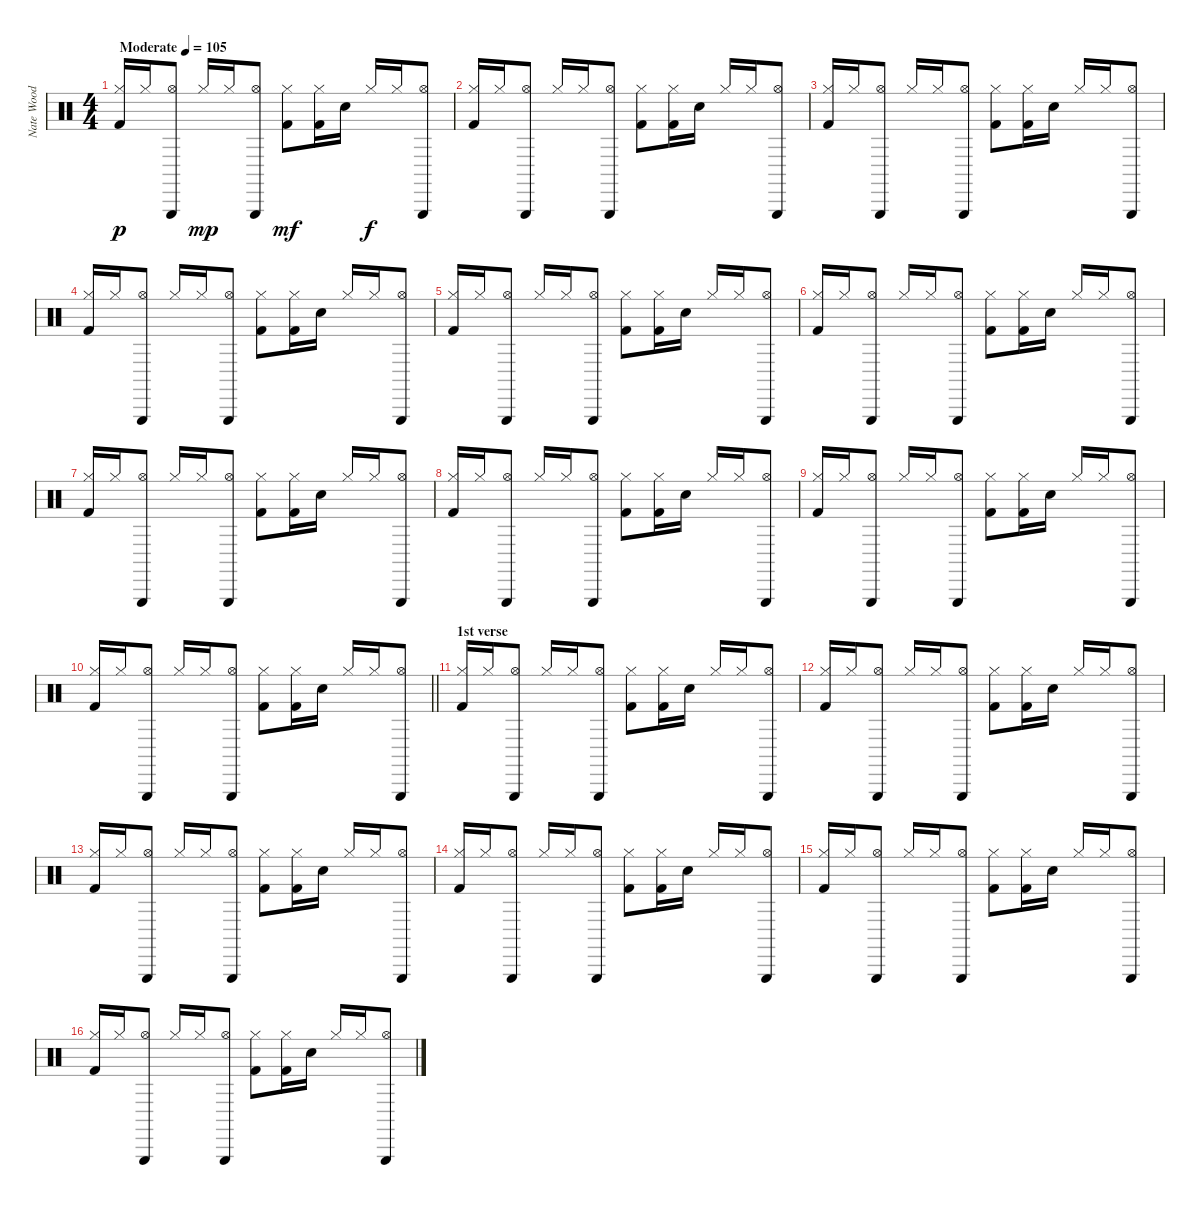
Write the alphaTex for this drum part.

\track ("Nate Wood" "Nate Wood") {instrument percussion}
\staff {score}
\articulation defaults
\ts (4 4)
\tempo (105 "Moderate")
\clef neutral
\ks c
("Hi-Hat (closed)" "Kick (hit) 2").16{dy p} "Hi-Hat (closed)".16 ("Triangle (hit)" "Hi-Hat (open)").8 "Hi-Hat (closed)".16{dy mp} "Hi-Hat (closed)".16 ("Triangle (hit)" "Hi-Hat (open)").8 ("Hi-Hat (closed)" "Kick (hit) 2").8{dy mf} ("Hi-Hat (closed)" "Kick (hit) 2").16 "Electric Snare (hit)".16 "Hi-Hat (closed)".16{dy f} "Hi-Hat (closed)".16 ("Triangle (hit)" "Hi-Hat (open)").8 |
("Hi-Hat (closed)" "Kick (hit) 2").16 "Hi-Hat (closed)".16 ("Triangle (hit)" "Hi-Hat (open)").8 "Hi-Hat (closed)".16 "Hi-Hat (closed)".16 ("Triangle (hit)" "Hi-Hat (open)").8 ("Hi-Hat (closed)" "Kick (hit) 2").8 ("Hi-Hat (closed)" "Kick (hit) 2").16 "Electric Snare (hit)".16 "Hi-Hat (closed)".16 "Hi-Hat (closed)".16 ("Triangle (hit)" "Hi-Hat (open)").8 |
("Hi-Hat (closed)" "Kick (hit) 2").16 "Hi-Hat (closed)".16 ("Triangle (hit)" "Hi-Hat (open)").8 "Hi-Hat (closed)".16 "Hi-Hat (closed)".16 ("Triangle (hit)" "Hi-Hat (open)").8 ("Hi-Hat (closed)" "Kick (hit) 2").8 ("Hi-Hat (closed)" "Kick (hit) 2").16 "Electric Snare (hit)".16 "Hi-Hat (closed)".16 "Hi-Hat (closed)".16 ("Triangle (hit)" "Hi-Hat (open)").8 |
("Hi-Hat (closed)" "Kick (hit) 2").16 "Hi-Hat (closed)".16 ("Triangle (hit)" "Hi-Hat (open)").8 "Hi-Hat (closed)".16 "Hi-Hat (closed)".16 ("Triangle (hit)" "Hi-Hat (open)").8 ("Hi-Hat (closed)" "Kick (hit) 2").8 ("Hi-Hat (closed)" "Kick (hit) 2").16 "Electric Snare (hit)".16 "Hi-Hat (closed)".16 "Hi-Hat (closed)".16 ("Triangle (hit)" "Hi-Hat (open)").8 |
("Hi-Hat (closed)" "Kick (hit) 2").16 "Hi-Hat (closed)".16 ("Triangle (hit)" "Hi-Hat (open)").8 "Hi-Hat (closed)".16 "Hi-Hat (closed)".16 ("Triangle (hit)" "Hi-Hat (open)").8 ("Hi-Hat (closed)" "Kick (hit) 2").8 ("Hi-Hat (closed)" "Kick (hit) 2").16 "Electric Snare (hit)".16 "Hi-Hat (closed)".16 "Hi-Hat (closed)".16 ("Triangle (hit)" "Hi-Hat (open)").8 |
("Hi-Hat (closed)" "Kick (hit) 2").16 "Hi-Hat (closed)".16 ("Triangle (hit)" "Hi-Hat (open)").8 "Hi-Hat (closed)".16 "Hi-Hat (closed)".16 ("Triangle (hit)" "Hi-Hat (open)").8 ("Hi-Hat (closed)" "Kick (hit) 2").8 ("Hi-Hat (closed)" "Kick (hit) 2").16 "Electric Snare (hit)".16 "Hi-Hat (closed)".16 "Hi-Hat (closed)".16 ("Triangle (hit)" "Hi-Hat (open)").8 |
("Hi-Hat (closed)" "Kick (hit) 2").16 "Hi-Hat (closed)".16 ("Triangle (hit)" "Hi-Hat (open)").8 "Hi-Hat (closed)".16 "Hi-Hat (closed)".16 ("Triangle (hit)" "Hi-Hat (open)").8 ("Hi-Hat (closed)" "Kick (hit) 2").8 ("Hi-Hat (closed)" "Kick (hit) 2").16 "Electric Snare (hit)".16 "Hi-Hat (closed)".16 "Hi-Hat (closed)".16 ("Triangle (hit)" "Hi-Hat (open)").8 |
("Hi-Hat (closed)" "Kick (hit) 2").16 "Hi-Hat (closed)".16 ("Triangle (hit)" "Hi-Hat (open)").8 "Hi-Hat (closed)".16 "Hi-Hat (closed)".16 ("Triangle (hit)" "Hi-Hat (open)").8 ("Hi-Hat (closed)" "Kick (hit) 2").8 ("Hi-Hat (closed)" "Kick (hit) 2").16 "Electric Snare (hit)".16 "Hi-Hat (closed)".16 "Hi-Hat (closed)".16 ("Triangle (hit)" "Hi-Hat (open)").8 |
("Hi-Hat (closed)" "Kick (hit) 2").16 "Hi-Hat (closed)".16 ("Triangle (hit)" "Hi-Hat (open)").8 "Hi-Hat (closed)".16 "Hi-Hat (closed)".16 ("Triangle (hit)" "Hi-Hat (open)").8 ("Hi-Hat (closed)" "Kick (hit) 2").8 ("Hi-Hat (closed)" "Kick (hit) 2").16 "Electric Snare (hit)".16 "Hi-Hat (closed)".16 "Hi-Hat (closed)".16 ("Triangle (hit)" "Hi-Hat (open)").8 |
\barLineRight lightlight
("Hi-Hat (closed)" "Kick (hit) 2").16 "Hi-Hat (closed)".16 ("Triangle (hit)" "Hi-Hat (open)").8 "Hi-Hat (closed)".16 "Hi-Hat (closed)".16 ("Triangle (hit)" "Hi-Hat (open)").8 ("Hi-Hat (closed)" "Kick (hit) 2").8 ("Hi-Hat (closed)" "Kick (hit) 2").16 "Electric Snare (hit)".16 "Hi-Hat (closed)".16 "Hi-Hat (closed)".16 ("Triangle (hit)" "Hi-Hat (open)").8 |
\section ("" "1st verse")
("Hi-Hat (closed)" "Kick (hit) 2").16 "Hi-Hat (closed)".16 ("Triangle (hit)" "Hi-Hat (open)").8 "Hi-Hat (closed)".16 "Hi-Hat (closed)".16 ("Triangle (hit)" "Hi-Hat (open)").8 ("Hi-Hat (closed)" "Kick (hit) 2").8 ("Hi-Hat (closed)" "Kick (hit) 2").16 "Electric Snare (hit)".16 "Hi-Hat (closed)".16 "Hi-Hat (closed)".16 ("Triangle (hit)" "Hi-Hat (open)").8 |
("Hi-Hat (closed)" "Kick (hit) 2").16 "Hi-Hat (closed)".16 ("Triangle (hit)" "Hi-Hat (open)").8 "Hi-Hat (closed)".16 "Hi-Hat (closed)".16 ("Triangle (hit)" "Hi-Hat (open)").8 ("Hi-Hat (closed)" "Kick (hit) 2").8 ("Hi-Hat (closed)" "Kick (hit) 2").16 "Electric Snare (hit)".16 "Hi-Hat (closed)".16 "Hi-Hat (closed)".16 ("Triangle (hit)" "Hi-Hat (open)").8 |
("Hi-Hat (closed)" "Kick (hit) 2").16 "Hi-Hat (closed)".16 ("Triangle (hit)" "Hi-Hat (open)").8 "Hi-Hat (closed)".16 "Hi-Hat (closed)".16 ("Triangle (hit)" "Hi-Hat (open)").8 ("Hi-Hat (closed)" "Kick (hit) 2").8 ("Hi-Hat (closed)" "Kick (hit) 2").16 "Electric Snare (hit)".16 "Hi-Hat (closed)".16 "Hi-Hat (closed)".16 ("Triangle (hit)" "Hi-Hat (open)").8 |
("Hi-Hat (closed)" "Kick (hit) 2").16 "Hi-Hat (closed)".16 ("Triangle (hit)" "Hi-Hat (open)").8 "Hi-Hat (closed)".16 "Hi-Hat (closed)".16 ("Triangle (hit)" "Hi-Hat (open)").8 ("Hi-Hat (closed)" "Kick (hit) 2").8 ("Hi-Hat (closed)" "Kick (hit) 2").16 "Electric Snare (hit)".16 "Hi-Hat (closed)".16 "Hi-Hat (closed)".16 ("Triangle (hit)" "Hi-Hat (open)").8 |
("Hi-Hat (closed)" "Kick (hit) 2").16 "Hi-Hat (closed)".16 ("Triangle (hit)" "Hi-Hat (open)").8 "Hi-Hat (closed)".16 "Hi-Hat (closed)".16 ("Triangle (hit)" "Hi-Hat (open)").8 ("Hi-Hat (closed)" "Kick (hit) 2").8 ("Hi-Hat (closed)" "Kick (hit) 2").16 "Electric Snare (hit)".16 "Hi-Hat (closed)".16 "Hi-Hat (closed)".16 ("Triangle (hit)" "Hi-Hat (open)").8 |
("Hi-Hat (closed)" "Kick (hit) 2").16 "Hi-Hat (closed)".16 ("Triangle (hit)" "Hi-Hat (open)").8 "Hi-Hat (closed)".16 "Hi-Hat (closed)".16 ("Triangle (hit)" "Hi-Hat (open)").8 ("Hi-Hat (closed)" "Kick (hit) 2").8 ("Hi-Hat (closed)" "Kick (hit) 2").16 "Electric Snare (hit)".16 "Hi-Hat (closed)".16 "Hi-Hat (closed)".16 ("Triangle (hit)" "Hi-Hat (open)").8
